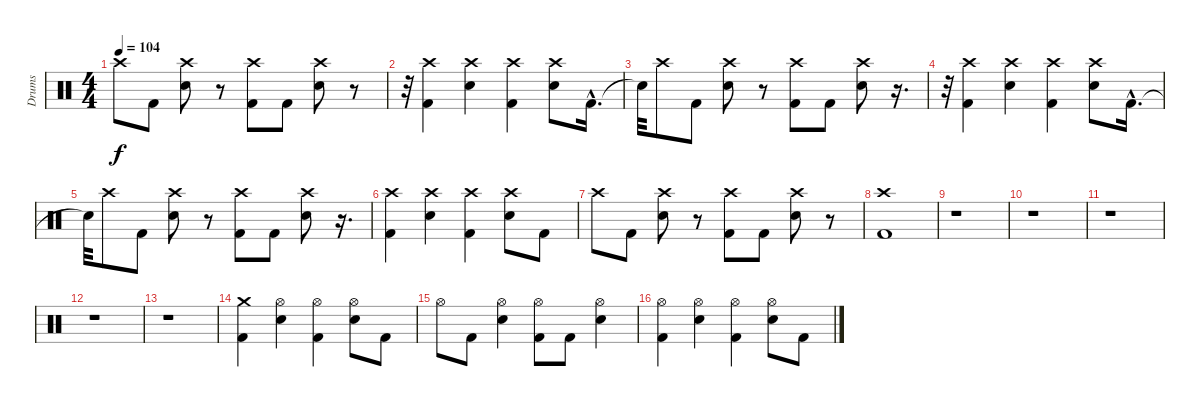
\track ("Drums" "Drums") {instrument percussion}
\staff {score}
\articulation defaults
\ts (4 4)
\tempo 104
\clef neutral
\ks c "Crash high (hit)".8{dy f} "Kick (hit) 2".8
("Crash high (hit)" "Electric Snare (hit)").8 r.8 ("Crash high (hit)" "Kick (hit) 2").8 "Kick (hit) 2".8 ("Crash high (hit)" "Electric Snare (hit)").8 r.8 |
r.32 ("Crash high (hit)" "Kick (hit) 2").4 ("Crash high (hit)" "Electric Snare (hit)").4 ("Crash high (hit)" "Kick (hit) 2").4 ("Crash high (hit)" "Electric Snare (hit)").8 "Kick (hit) 2"{hac}.16{d} |
"Snare (hit)"{t}.32 "Crash high (hit)".8 "Kick (hit) 2".8 ("Crash high (hit)" "Electric Snare (hit)").8 r.8 ("Crash high (hit)" "Kick (hit) 2").8 "Kick (hit) 2".8 ("Crash high (hit)" "Electric Snare (hit)").8 r.16{d} |
r.32 ("Crash high (hit)" "Kick (hit) 2").4 ("Crash high (hit)" "Electric Snare (hit)").4 ("Crash high (hit)" "Kick (hit) 2").4 ("Crash high (hit)" "Electric Snare (hit)").8 "Kick (hit) 2"{hac}.16{d} |
"Snare (hit)"{t}.32 "Crash high (hit)".8 "Kick (hit) 2".8 ("Crash high (hit)" "Electric Snare (hit)").8 r.8 ("Crash high (hit)" "Kick (hit) 2").8 "Kick (hit) 2".8 ("Crash high (hit)" "Electric Snare (hit)").8 r.16{d} |
("Crash high (hit)" "Kick (hit) 2").4 ("Crash high (hit)" "Electric Snare (hit)").4 ("Crash high (hit)" "Kick (hit) 2").4 ("Crash high (hit)" "Electric Snare (hit)").8 "Kick (hit) 2".8 |
"Crash high (hit)".8 "Kick (hit) 2".8 ("Crash high (hit)" "Electric Snare (hit)").8 r.8 ("Crash high (hit)" "Kick (hit) 2").8 "Kick (hit) 2".8 ("Crash high (hit)" "Electric Snare (hit)").8 r.8 |
("Crash high (hit)" "Kick (hit) 2").1 |
r.1 |
r.1 |
r.1 |
r.1 |
r.1 |
("Kick (hit) 2" "Crash medium (hit)").4 ("Hi-Hat (open)" "Electric Snare (hit)").4 ("Hi-Hat (open)" "Kick (hit) 2").4 ("Hi-Hat (open)" "Electric Snare (hit)").8 "Kick (hit) 2".8 |
"Hi-Hat (open)".8 "Kick (hit) 2".8 ("Hi-Hat (open)" "Electric Snare (hit)").4 ("Hi-Hat (open)" "Kick (hit) 2").8 "Kick (hit) 2".8 ("Hi-Hat (open)" "Electric Snare (hit)").4 |
("Hi-Hat (open)" "Kick (hit) 2").4 ("Hi-Hat (open)" "Electric Snare (hit)").4 ("Hi-Hat (open)" "Kick (hit) 2").4 ("Hi-Hat (open)" "Electric Snare (hit)").8 "Kick (hit) 2".8
